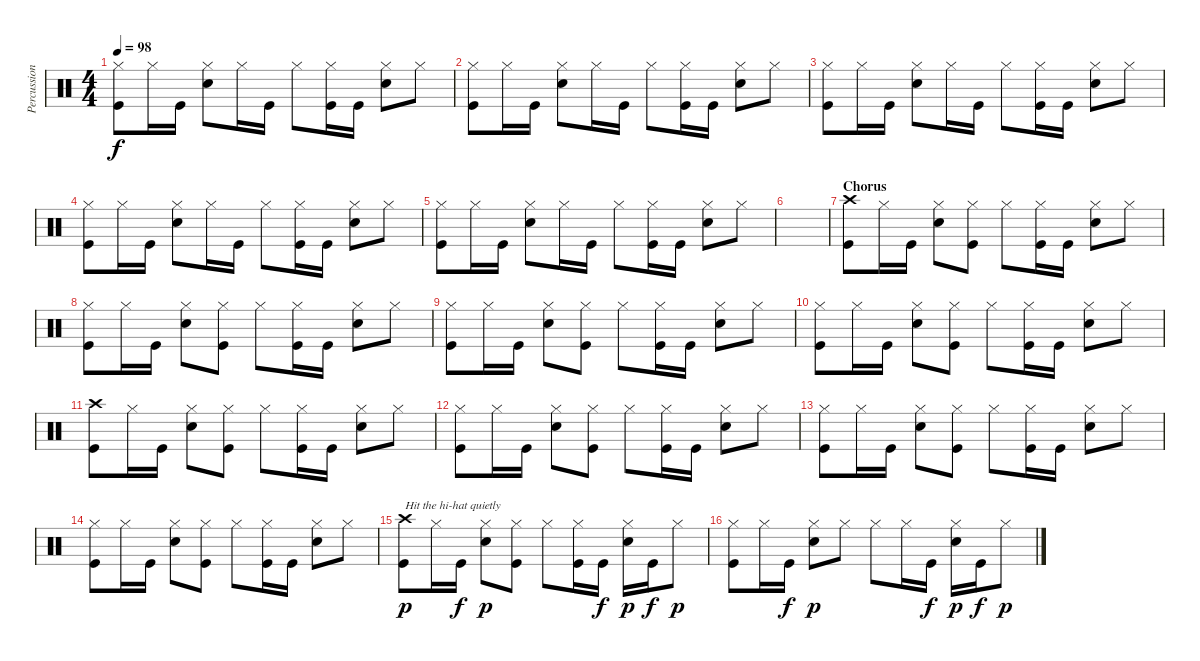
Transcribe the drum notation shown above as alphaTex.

\track ("Percussion" "Percussion") {instrument percussion}
\staff {score}
\articulation defaults
\ts (4 4)
\tempo 98
\clef neutral
\ks c
("Hi-Hat (closed)" "Kick (hit)").8{dy f volume 14} "Hi-Hat (closed)".16 "Kick (hit)".16 ("Hi-Hat (closed)" "Electric Snare (hit)").8 "Hi-Hat (closed)".16 "Kick (hit)".16 "Hi-Hat (closed)".8 ("Hi-Hat (closed)" "Kick (hit)").16 "Kick (hit)".16 ("Hi-Hat (closed)" "Electric Snare (hit)").8 "Hi-Hat (closed)".8 |
("Hi-Hat (closed)" "Kick (hit)").8{volume 14} "Hi-Hat (closed)".16 "Kick (hit)".16 ("Hi-Hat (closed)" "Electric Snare (hit)").8 "Hi-Hat (closed)".16 "Kick (hit)".16 "Hi-Hat (closed)".8 ("Hi-Hat (closed)" "Kick (hit)").16 "Kick (hit)".16 ("Hi-Hat (closed)" "Electric Snare (hit)").8 "Hi-Hat (closed)".8 |
("Hi-Hat (closed)" "Kick (hit)").8{volume 14} "Hi-Hat (closed)".16 "Kick (hit)".16 ("Hi-Hat (closed)" "Electric Snare (hit)").8 "Hi-Hat (closed)".16 "Kick (hit)".16 "Hi-Hat (closed)".8 ("Hi-Hat (closed)" "Kick (hit)").16 "Kick (hit)".16 ("Hi-Hat (closed)" "Electric Snare (hit)").8 "Hi-Hat (closed)".8 |
("Hi-Hat (closed)" "Kick (hit)").8{volume 14} "Hi-Hat (closed)".16 "Kick (hit)".16 ("Hi-Hat (closed)" "Electric Snare (hit)").8 "Hi-Hat (closed)".16 "Kick (hit)".16 "Hi-Hat (closed)".8 ("Hi-Hat (closed)" "Kick (hit)").16 "Kick (hit)".16 ("Hi-Hat (closed)" "Electric Snare (hit)").8 "Hi-Hat (closed)".8 |
("Hi-Hat (closed)" "Kick (hit)").8{volume 14} "Hi-Hat (closed)".16 "Kick (hit)".16 ("Hi-Hat (closed)" "Electric Snare (hit)").8 "Hi-Hat (closed)".16 "Kick (hit)".16 "Hi-Hat (closed)".8 ("Hi-Hat (closed)" "Kick (hit)").16 "Kick (hit)".16 ("Hi-Hat (closed)" "Electric Snare (hit)").8 "Hi-Hat (closed)".8 |
|
\section ("" "Chorus")
("Crash high (hit)" "Kick (hit)").8{volume 14} "Hi-Hat (closed)".16 "Kick (hit)".16 ("Hi-Hat (closed)" "Electric Snare (hit)").8 ("Hi-Hat (closed)" "Kick (hit)").8 "Hi-Hat (closed)".8 ("Hi-Hat (closed)" "Kick (hit)").16 "Kick (hit)".16 ("Hi-Hat (closed)" "Electric Snare (hit)").8 "Hi-Hat (closed)".8 |
("Hi-Hat (closed)" "Kick (hit)").8{volume 14} "Hi-Hat (closed)".16 "Kick (hit)".16 ("Hi-Hat (closed)" "Electric Snare (hit)").8 ("Hi-Hat (closed)" "Kick (hit)").8 "Hi-Hat (closed)".8 ("Hi-Hat (closed)" "Kick (hit)").16 "Kick (hit)".16 ("Hi-Hat (closed)" "Electric Snare (hit)").8 "Hi-Hat (closed)".8 |
("Hi-Hat (closed)" "Kick (hit)").8{volume 14} "Hi-Hat (closed)".16 "Kick (hit)".16 ("Hi-Hat (closed)" "Electric Snare (hit)").8 ("Hi-Hat (closed)" "Kick (hit)").8 "Hi-Hat (closed)".8 ("Hi-Hat (closed)" "Kick (hit)").16 "Kick (hit)".16 ("Hi-Hat (closed)" "Electric Snare (hit)").8 "Hi-Hat (closed)".8 |
("Hi-Hat (closed)" "Kick (hit)").8{volume 14} "Hi-Hat (closed)".16 "Kick (hit)".16 ("Hi-Hat (closed)" "Electric Snare (hit)").8 ("Hi-Hat (closed)" "Kick (hit)").8 "Hi-Hat (closed)".8 ("Hi-Hat (closed)" "Kick (hit)").16 "Kick (hit)".16 ("Hi-Hat (closed)" "Electric Snare (hit)").8 "Hi-Hat (closed)".8 |
("Crash high (hit)" "Kick (hit)").8{volume 14} "Hi-Hat (closed)".16 "Kick (hit)".16 ("Hi-Hat (closed)" "Electric Snare (hit)").8 ("Hi-Hat (closed)" "Kick (hit)").8 "Hi-Hat (closed)".8 ("Hi-Hat (closed)" "Kick (hit)").16 "Kick (hit)".16 ("Hi-Hat (closed)" "Electric Snare (hit)").8 "Hi-Hat (closed)".8 |
("Hi-Hat (closed)" "Kick (hit)").8{volume 14} "Hi-Hat (closed)".16 "Kick (hit)".16 ("Hi-Hat (closed)" "Electric Snare (hit)").8 ("Hi-Hat (closed)" "Kick (hit)").8 "Hi-Hat (closed)".8 ("Hi-Hat (closed)" "Kick (hit)").16 "Kick (hit)".16 ("Hi-Hat (closed)" "Electric Snare (hit)").8 "Hi-Hat (closed)".8 |
("Hi-Hat (closed)" "Kick (hit)").8{volume 14} "Hi-Hat (closed)".16 "Kick (hit)".16 ("Hi-Hat (closed)" "Electric Snare (hit)").8 ("Hi-Hat (closed)" "Kick (hit)").8 "Hi-Hat (closed)".8 ("Hi-Hat (closed)" "Kick (hit)").16 "Kick (hit)".16 ("Hi-Hat (closed)" "Electric Snare (hit)").8 "Hi-Hat (closed)".8 |
("Hi-Hat (closed)" "Kick (hit)").8{volume 14} "Hi-Hat (closed)".16 "Kick (hit)".16 ("Hi-Hat (closed)" "Electric Snare (hit)").8 ("Hi-Hat (closed)" "Kick (hit)").8 "Hi-Hat (closed)".8 ("Hi-Hat (closed)" "Kick (hit)").16 "Kick (hit)".16 ("Hi-Hat (closed)" "Electric Snare (hit)").8 "Hi-Hat (closed)".8 |
("Crash high (hit)" "Kick (hit)").8{txt "Hit the hi-hat quietly" dy p volume 14} "Hi-Hat (closed)".16 "Kick (hit)".16{dy f} ("Hi-Hat (closed)" "Electric Snare (hit)").8{dy p} ("Hi-Hat (closed)" "Kick (hit)").8 "Hi-Hat (closed)".8 ("Hi-Hat (closed)" "Kick (hit)").16 "Kick (hit)".16{dy f} ("Hi-Hat (closed)" "Electric Snare (hit)").16{dy p} "Kick (hit)".16{dy f} "Hi-Hat (closed)".8{dy p} |
("Hi-Hat (closed)" "Kick (hit)").8{volume 14} "Hi-Hat (closed)".16 "Kick (hit)".16{dy f} ("Hi-Hat (closed)" "Electric Snare (hit)").8{dy p} "Hi-Hat (closed)".8 "Hi-Hat (closed)".8 "Hi-Hat (closed)".16 "Kick (hit)".16{dy f} ("Hi-Hat (closed)" "Electric Snare (hit)").16{dy p} "Kick (hit)".16{dy f} "Hi-Hat (closed)".8{dy p}
